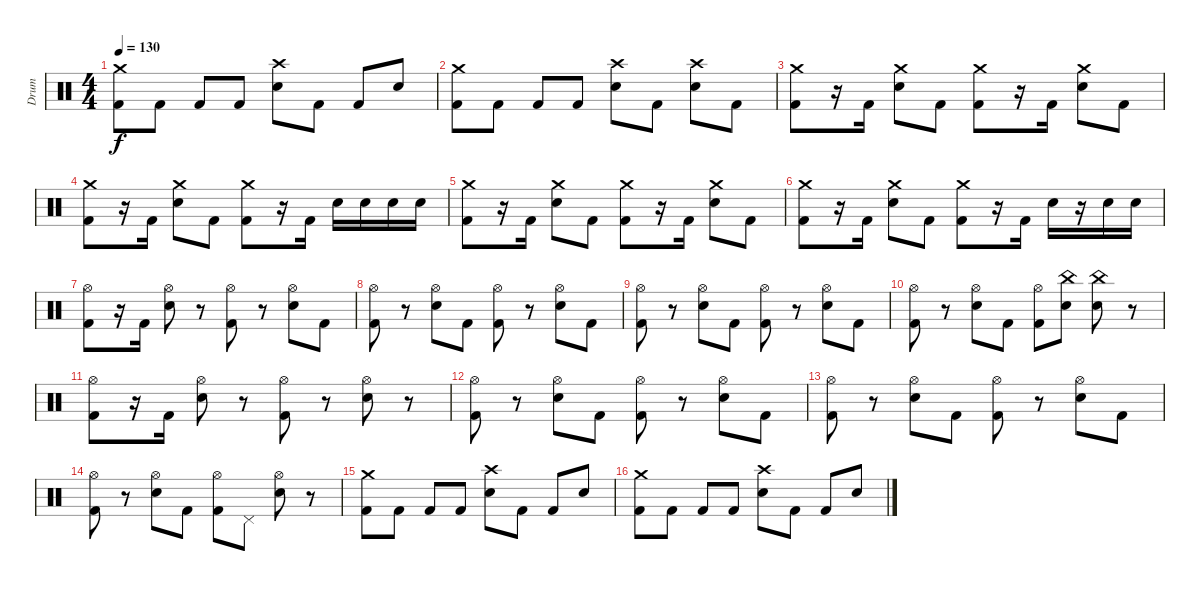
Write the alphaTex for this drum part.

\track ("Drum" "Drum") {instrument percussion}
\staff {score}
\articulation defaults
\ts (4 4)
\tempo 130
\clef neutral
\ks c
("Crash medium (hit)" "Kick (hit) 2").8{dy f} "Kick (hit) 2".8 "Kick (hit) 2".8 "Kick (hit) 2".8 ("Crash high (hit)" "Snare (hit) 2").8 "Kick (hit) 2".8 "Kick (hit) 2".8 "Snare (hit) 2".8 |
("Crash medium (hit)" "Kick (hit) 2").8 "Kick (hit) 2".8 "Kick (hit) 2".8 "Kick (hit) 2".8 ("Crash high (hit)" "Snare (hit) 2").8 "Kick (hit) 2".8 ("Crash high (hit)" "Snare (hit) 2").8 "Kick (hit) 2".8 |
("Crash medium (hit)" "Kick (hit) 2").8 r.16 "Kick (hit) 2".16 ("Crash medium (hit)" "Snare (hit) 2").8 "Kick (hit) 2".8 ("Crash medium (hit)" "Kick (hit) 2").8 r.16 "Kick (hit) 2".16 ("Crash medium (hit)" "Snare (hit) 2").8 "Kick (hit) 2".8 |
("Crash medium (hit)" "Kick (hit) 2").8 r.16 "Kick (hit) 2".16 ("Crash medium (hit)" "Snare (hit) 2").8 "Kick (hit) 2".8 ("Crash medium (hit)" "Kick (hit) 2").8 r.16 "Kick (hit) 2".16 "Snare (hit) 2".16 "Snare (hit) 2".16 "Snare (hit) 2".16 "Snare (hit) 2".16 |
("Crash medium (hit)" "Kick (hit) 2").8 r.16 "Kick (hit) 2".16 ("Crash medium (hit)" "Snare (hit) 2").8 "Kick (hit) 2".8 ("Crash medium (hit)" "Kick (hit) 2").8 r.16 "Kick (hit) 2".16 ("Crash medium (hit)" "Snare (hit) 2").8 "Kick (hit) 2".8 |
("Crash medium (hit)" "Kick (hit) 2").8 r.16 "Kick (hit) 2".16 ("Crash medium (hit)" "Snare (hit) 2").8 "Kick (hit) 2".8 ("Crash medium (hit)" "Kick (hit) 2").8 r.16 "Kick (hit) 2".16 "Snare (hit) 2".16 r.16 "Snare (hit) 2".16 "Snare (hit) 2".16 |
("Hi-Hat (open)" "Kick (hit) 2").8 r.16 "Kick (hit) 2".16 ("Hi-Hat (open)" "Snare (hit) 2").8 r.8 ("Hi-Hat (open)" "Kick (hit) 2").8 r.8 ("Hi-Hat (open)" "Snare (hit) 2").8 "Kick (hit) 2".8 |
("Hi-Hat (open)" "Kick (hit) 2").8 r.8 ("Hi-Hat (open)" "Snare (hit) 2").8 "Kick (hit) 2".8 ("Hi-Hat (open)" "Kick (hit) 2").8 r.8 ("Hi-Hat (open)" "Snare (hit) 2").8 "Kick (hit) 2".8 |
("Hi-Hat (open)" "Kick (hit) 2").8 r.8 ("Hi-Hat (open)" "Snare (hit) 2").8 "Kick (hit) 2".8 ("Hi-Hat (open)" "Kick (hit) 2").8 r.8 ("Hi-Hat (open)" "Snare (hit) 2").8 "Kick (hit) 2".8 |
("Hi-Hat (open)" "Kick (hit) 2").8 r.8 ("Hi-Hat (open)" "Snare (hit) 2").8 "Kick (hit) 2".8 ("Hi-Hat (open)" "Kick (hit) 2").8 ("China (hit)" "Snare (hit) 2").8 ("China (hit)" "Snare (hit) 2").8 r.8 |
("Hi-Hat (open)" "Kick (hit) 2").8 r.16 "Kick (hit) 2".16 ("Hi-Hat (open)" "Snare (hit) 2").8 r.8 ("Hi-Hat (open)" "Kick (hit) 2").8 r.8 ("Hi-Hat (open)" "Snare (hit) 2").8 r.8 |
("Hi-Hat (open)" "Kick (hit) 2").8 r.8 ("Hi-Hat (open)" "Snare (hit) 2").8 "Kick (hit) 2".8 ("Hi-Hat (open)" "Kick (hit) 2").8 r.8 ("Hi-Hat (open)" "Snare (hit) 2").8 "Kick (hit) 2".8 |
("Hi-Hat (open)" "Kick (hit) 2").8 r.8 ("Hi-Hat (open)" "Snare (hit) 2").8 "Kick (hit) 2".8 ("Hi-Hat (open)" "Kick (hit) 2").8 r.8 ("Hi-Hat (open)" "Snare (hit) 2").8 "Kick (hit) 2".8 |
("Hi-Hat (open)" "Kick (hit) 2").8 r.8 ("Hi-Hat (open)" "Snare (hit) 2").8 "Kick (hit) 2".8 ("Hi-Hat (open)" "Kick (hit) 2").8 "Pedal Hi-Hat (hit)".8 ("Hi-Hat (open)" "Snare (hit) 2").8 r.8 |
("Crash medium (hit)" "Kick (hit) 2").8 "Kick (hit) 2".8 "Kick (hit) 2".8 "Kick (hit) 2".8 ("Crash high (hit)" "Snare (hit) 2").8 "Kick (hit) 2".8 "Kick (hit) 2".8 "Snare (hit) 2".8 |
("Crash medium (hit)" "Kick (hit) 2").8 "Kick (hit) 2".8 "Kick (hit) 2".8 "Kick (hit) 2".8 ("Crash high (hit)" "Snare (hit) 2").8 "Kick (hit) 2".8 "Kick (hit) 2".8 "Snare (hit) 2".8
